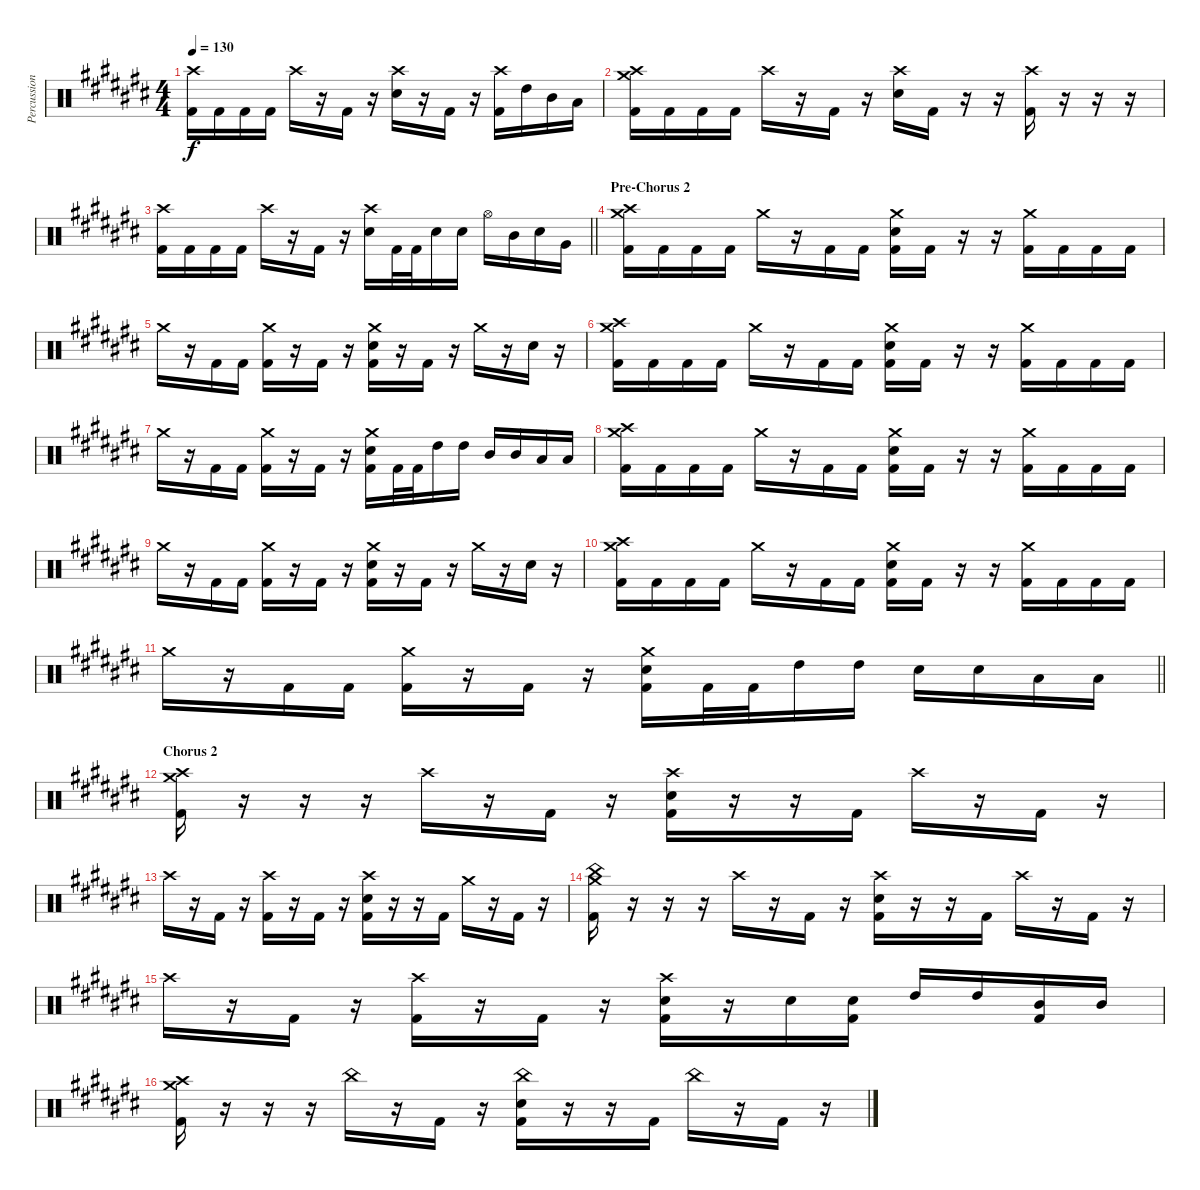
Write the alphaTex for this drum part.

\track ("Percussion" "Percussion") {instrument percussion}
\staff {score}
\articulation defaults
\ts (4 4)
\tempo 130
\clef neutral
\ks a#minor
("Crash high (hit)" "Kick (hit) 2").16{dy f} "Kick (hit) 2".16 "Kick (hit) 2".16 "Kick (hit) 2".16 "Crash high (hit)".16 r.16 "Kick (hit) 2".16 r.16 ("Crash high (hit)" "Electric Snare (hit)").16 r.16 "Kick (hit) 2".16 r.16 ("Crash high (hit)" "Kick (hit) 2").16 "High Tom (hit)".16 "Mid Tom (hit)".16 "Low Tom (hit)".16 |
("Crash high (hit)" "Crash medium (hit)" "Kick (hit) 2").16 "Kick (hit) 2".16 "Kick (hit) 2".16 "Kick (hit) 2".16 "Crash high (hit)".16 r.16 "Kick (hit) 2".16 r.16 ("Crash high (hit)" "Electric Snare (hit)").16 "Kick (hit) 2".16 r.16 r.16 ("Crash high (hit)" "Kick (hit) 2").16 r.16 r.16 r.16 |
\barLineRight lightlight
("Crash high (hit)" "Kick (hit) 2").16 "Kick (hit) 2".16 "Kick (hit) 2".16 "Kick (hit) 2".16 "Crash high (hit)".16 r.16 "Kick (hit) 2".16 r.16 ("Crash high (hit)" "Electric Snare (hit)").16 "Kick (hit) 2".32 "Kick (hit) 2".32 "Electric Snare (hit)".16 "Electric Snare (hit)".16 "Hi-Hat (open)".16 "Mid Tom (hit)".16 "Electric Snare (hit)".16 "Very Low Tom (hit)".16 |
\section ("" "Pre-Chorus 2")
("Crash medium (hit)" "Crash high (hit)" "Kick (hit) 2").16 "Kick (hit) 2".16 "Kick (hit) 2".16 "Kick (hit) 2".16 "Crash medium (hit)".16 r.16 "Kick (hit) 2".16 "Kick (hit) 2".16 ("Crash medium (hit)" "Electric Snare (hit)" "Kick (hit) 2").16 "Kick (hit) 2".16 r.16 r.16 ("Crash medium (hit)" "Kick (hit) 2").16 "Kick (hit) 2".16 "Kick (hit) 2".16 "Kick (hit) 2".16 |
"Crash medium (hit)".16 r.16 "Kick (hit) 2".16 "Kick (hit) 2".16 ("Crash medium (hit)" "Kick (hit) 2").16 r.16 "Kick (hit) 2".16 r.16 ("Crash medium (hit)" "Electric Snare (hit)" "Kick (hit) 2").16 r.16 "Kick (hit) 2".16 r.16 "Crash medium (hit)".16 r.16 "Electric Snare (hit)".16 r.16 |
("Crash medium (hit)" "Crash high (hit)" "Kick (hit) 2").16 "Kick (hit) 2".16 "Kick (hit) 2".16 "Kick (hit) 2".16 "Crash medium (hit)".16 r.16 "Kick (hit) 2".16 "Kick (hit) 2".16 ("Crash medium (hit)" "Electric Snare (hit)" "Kick (hit) 2").16 "Kick (hit) 2".16 r.16 r.16 ("Crash medium (hit)" "Kick (hit) 2").16 "Kick (hit) 2".16 "Kick (hit) 2".16 "Kick (hit) 2".16 |
"Crash medium (hit)".16 r.16 "Kick (hit) 2".16 "Kick (hit) 2".16 ("Crash medium (hit)" "Kick (hit) 2").16 r.16 "Kick (hit) 2".16 r.16 ("Crash medium (hit)" "Electric Snare (hit)" "Kick (hit) 2").16 "Kick (hit) 2".32 "Kick (hit) 2".32 "High Tom (hit)".16 "High Tom (hit)".16 "Mid Tom (hit)".16 "Mid Tom (hit)".16 "Low Tom (hit)".16 "Low Tom (hit)".16 |
("Crash medium (hit)" "Crash high (hit)" "Kick (hit) 2").16 "Kick (hit) 2".16 "Kick (hit) 2".16 "Kick (hit) 2".16 "Crash medium (hit)".16 r.16 "Kick (hit) 2".16 "Kick (hit) 2".16 ("Crash medium (hit)" "Electric Snare (hit)" "Kick (hit) 2").16 "Kick (hit) 2".16 r.16 r.16 ("Crash medium (hit)" "Kick (hit) 2").16 "Kick (hit) 2".16 "Kick (hit) 2".16 "Kick (hit) 2".16 |
"Crash medium (hit)".16 r.16 "Kick (hit) 2".16 "Kick (hit) 2".16 ("Crash medium (hit)" "Kick (hit) 2").16 r.16 "Kick (hit) 2".16 r.16 ("Crash medium (hit)" "Electric Snare (hit)" "Kick (hit) 2").16 r.16 "Kick (hit) 2".16 r.16 "Crash medium (hit)".16 r.16 "Electric Snare (hit)".16 r.16 |
("Crash medium (hit)" "Crash high (hit)" "Kick (hit) 2").16 "Kick (hit) 2".16 "Kick (hit) 2".16 "Kick (hit) 2".16 "Crash medium (hit)".16 r.16 "Kick (hit) 2".16 "Kick (hit) 2".16 ("Crash medium (hit)" "Electric Snare (hit)" "Kick (hit) 2").16 "Kick (hit) 2".16 r.16 r.16 ("Crash medium (hit)" "Kick (hit) 2").16 "Kick (hit) 2".16 "Kick (hit) 2".16 "Kick (hit) 2".16 |
\barLineRight lightlight "Crash medium (hit)".16
r.16 "Kick (hit) 2".16 "Kick (hit) 2".16 ("Crash medium (hit)" "Kick (hit) 2").16 r.16 "Kick (hit) 2".16 r.16 ("Crash medium (hit)" "Electric Snare (hit)" "Kick (hit) 2").16 "Kick (hit) 2".32 "Kick (hit) 2".32 "High Tom (hit)".16 "High Tom (hit)".16 "Electric Snare (hit)".16 "Electric Snare (hit)".16 "Low Tom (hit)".16 "Low Tom (hit)".16 |
\section ("" "Chorus 2")
("Crash high (hit)" "Crash medium (hit)" "Kick (hit) 2").16 r.16 r.16 r.16 "Crash high (hit)".16 r.16 "Kick (hit) 2".16 r.16 ("Crash high (hit)" "Electric Snare (hit)" "Kick (hit) 2").16 r.16 r.16 "Kick (hit) 2".16 "Crash high (hit)".16 r.16 "Kick (hit) 2".16 r.16 |
"Crash high (hit)".16 r.16 "Kick (hit) 2".16 r.16 ("Crash high (hit)" "Kick (hit) 2").16 r.16 "Kick (hit) 2".16 r.16 ("Crash high (hit)" "Electric Snare (hit)" "Kick (hit) 2").16 r.16 r.16 "Kick (hit) 2".16 "Crash medium (hit)".16 r.16 "Kick (hit) 2".16 r.16 |
("China (hit)" "Crash medium (hit)" "Kick (hit) 2").16 r.16 r.16 r.16 "Crash high (hit)".16 r.16 "Kick (hit) 2".16 r.16 ("Crash high (hit)" "Electric Snare (hit)" "Kick (hit) 2").16 r.16 r.16 "Kick (hit) 2".16 "Crash high (hit)".16 r.16 "Kick (hit) 2".16 r.16 |
"Crash high (hit)".16 r.16 "Kick (hit) 2".16 r.16 ("Crash high (hit)" "Kick (hit) 2").16 r.16 "Kick (hit) 2".16 r.16 ("Crash high (hit)" "Electric Snare (hit)" "Kick (hit) 2").16 r.16 "Electric Snare (hit)".16 ("Electric Snare (hit)" "Kick (hit) 2").16 "High Tom (hit)".16 "High Tom (hit)".16 ("Mid Tom (hit)" "Kick (hit) 2").16 "Mid Tom (hit)".16 |
("Crash high (hit)" "Crash medium (hit)" "Kick (hit) 2").16 r.16 r.16 r.16 "China (hit)".16 r.16 "Kick (hit) 2".16 r.16 ("China (hit)" "Electric Snare (hit)" "Kick (hit) 2").16 r.16 r.16 "Kick (hit) 2".16 "China (hit)".16 r.16 "Kick (hit) 2".16 r.16
